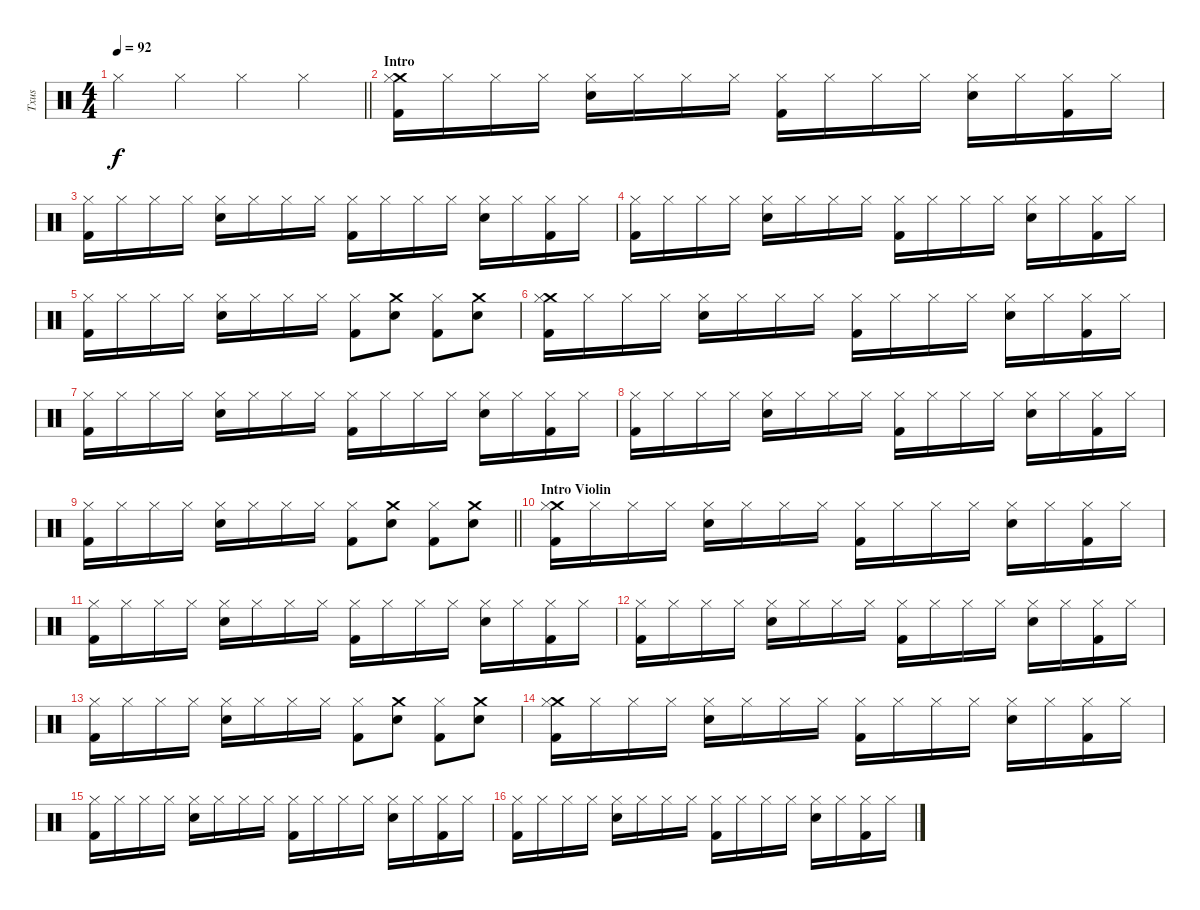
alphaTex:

\track ("Txus" "Txus") {instrument percussion}
\staff {score}
\articulation defaults
\ts (4 4)
\tempo 92
\clef neutral
\barLineRight lightlight
\ks c "Hi-Hat (closed)".4{dy f} "Hi-Hat (closed)".4 "Hi-Hat (closed)".4 "Hi-Hat (closed)".4
|
\section ("" "Intro")
("Crash medium (hit)" "Hi-Hat (closed)" "Kick (hit) 2").16 "Hi-Hat (closed)".16 "Hi-Hat (closed)".16 "Hi-Hat (closed)".16 ("Hi-Hat (closed)" "Electric Snare (hit)").16 "Hi-Hat (closed)".16 "Hi-Hat (closed)".16 "Hi-Hat (closed)".16 ("Hi-Hat (closed)" "Kick (hit) 2").16 "Hi-Hat (closed)".16 "Hi-Hat (closed)".16 "Hi-Hat (closed)".16 ("Hi-Hat (closed)" "Electric Snare (hit)").16 "Hi-Hat (closed)".16 ("Hi-Hat (closed)" "Kick (hit) 2").16 "Hi-Hat (closed)".16 |
("Hi-Hat (closed)" "Kick (hit) 2").16 "Hi-Hat (closed)".16 "Hi-Hat (closed)".16 "Hi-Hat (closed)".16 ("Hi-Hat (closed)" "Electric Snare (hit)").16 "Hi-Hat (closed)".16 "Hi-Hat (closed)".16 "Hi-Hat (closed)".16 ("Hi-Hat (closed)" "Kick (hit) 2").16 "Hi-Hat (closed)".16 "Hi-Hat (closed)".16 "Hi-Hat (closed)".16 ("Hi-Hat (closed)" "Electric Snare (hit)").16 "Hi-Hat (closed)".16 ("Hi-Hat (closed)" "Kick (hit) 2").16 "Hi-Hat (closed)".16 |
("Hi-Hat (closed)" "Kick (hit) 2").16 "Hi-Hat (closed)".16 "Hi-Hat (closed)".16 "Hi-Hat (closed)".16 ("Hi-Hat (closed)" "Electric Snare (hit)").16 "Hi-Hat (closed)".16 "Hi-Hat (closed)".16 "Hi-Hat (closed)".16 ("Hi-Hat (closed)" "Kick (hit) 2").16 "Hi-Hat (closed)".16 "Hi-Hat (closed)".16 "Hi-Hat (closed)".16 ("Hi-Hat (closed)" "Electric Snare (hit)").16 "Hi-Hat (closed)".16 ("Hi-Hat (closed)" "Kick (hit) 2").16 "Hi-Hat (closed)".16 |
("Hi-Hat (closed)" "Kick (hit) 2").16 "Hi-Hat (closed)".16 "Hi-Hat (closed)".16 "Hi-Hat (closed)".16 ("Hi-Hat (closed)" "Electric Snare (hit)").16 "Hi-Hat (closed)".16 "Hi-Hat (closed)".16 "Hi-Hat (closed)".16 ("Hi-Hat (closed)" "Kick (hit) 2").8 ("Crash medium (hit)" "Electric Snare (hit)").8 ("Hi-Hat (closed)" "Kick (hit) 2").8 ("Crash medium (hit)" "Electric Snare (hit)").8 |
("Crash medium (hit)" "Hi-Hat (closed)" "Kick (hit) 2").16 "Hi-Hat (closed)".16 "Hi-Hat (closed)".16 "Hi-Hat (closed)".16 ("Hi-Hat (closed)" "Electric Snare (hit)").16 "Hi-Hat (closed)".16 "Hi-Hat (closed)".16 "Hi-Hat (closed)".16 ("Hi-Hat (closed)" "Kick (hit) 2").16 "Hi-Hat (closed)".16 "Hi-Hat (closed)".16 "Hi-Hat (closed)".16 ("Hi-Hat (closed)" "Electric Snare (hit)").16 "Hi-Hat (closed)".16 ("Hi-Hat (closed)" "Kick (hit) 2").16 "Hi-Hat (closed)".16 |
("Hi-Hat (closed)" "Kick (hit) 2").16 "Hi-Hat (closed)".16 "Hi-Hat (closed)".16 "Hi-Hat (closed)".16 ("Hi-Hat (closed)" "Electric Snare (hit)").16 "Hi-Hat (closed)".16 "Hi-Hat (closed)".16 "Hi-Hat (closed)".16 ("Hi-Hat (closed)" "Kick (hit) 2").16 "Hi-Hat (closed)".16 "Hi-Hat (closed)".16 "Hi-Hat (closed)".16 ("Hi-Hat (closed)" "Electric Snare (hit)").16 "Hi-Hat (closed)".16 ("Hi-Hat (closed)" "Kick (hit) 2").16 "Hi-Hat (closed)".16 |
("Hi-Hat (closed)" "Kick (hit) 2").16 "Hi-Hat (closed)".16 "Hi-Hat (closed)".16 "Hi-Hat (closed)".16 ("Hi-Hat (closed)" "Electric Snare (hit)").16 "Hi-Hat (closed)".16 "Hi-Hat (closed)".16 "Hi-Hat (closed)".16 ("Hi-Hat (closed)" "Kick (hit) 2").16 "Hi-Hat (closed)".16 "Hi-Hat (closed)".16 "Hi-Hat (closed)".16 ("Hi-Hat (closed)" "Electric Snare (hit)").16 "Hi-Hat (closed)".16 ("Hi-Hat (closed)" "Kick (hit) 2").16 "Hi-Hat (closed)".16 |
\barLineRight lightlight
("Hi-Hat (closed)" "Kick (hit) 2").16 "Hi-Hat (closed)".16 "Hi-Hat (closed)".16 "Hi-Hat (closed)".16 ("Hi-Hat (closed)" "Electric Snare (hit)").16 "Hi-Hat (closed)".16 "Hi-Hat (closed)".16 "Hi-Hat (closed)".16 ("Hi-Hat (closed)" "Kick (hit) 2").8 ("Crash medium (hit)" "Electric Snare (hit)").8 ("Hi-Hat (closed)" "Kick (hit) 2").8 ("Crash medium (hit)" "Electric Snare (hit)").8 |
\section ("" "Intro Violin")
("Crash medium (hit)" "Hi-Hat (closed)" "Kick (hit) 2").16 "Hi-Hat (closed)".16 "Hi-Hat (closed)".16 "Hi-Hat (closed)".16 ("Hi-Hat (closed)" "Electric Snare (hit)").16 "Hi-Hat (closed)".16 "Hi-Hat (closed)".16 "Hi-Hat (closed)".16 ("Hi-Hat (closed)" "Kick (hit) 2").16 "Hi-Hat (closed)".16 "Hi-Hat (closed)".16 "Hi-Hat (closed)".16 ("Hi-Hat (closed)" "Electric Snare (hit)").16 "Hi-Hat (closed)".16 ("Hi-Hat (closed)" "Kick (hit) 2").16 "Hi-Hat (closed)".16 |
("Hi-Hat (closed)" "Kick (hit) 2").16 "Hi-Hat (closed)".16 "Hi-Hat (closed)".16 "Hi-Hat (closed)".16 ("Hi-Hat (closed)" "Electric Snare (hit)").16 "Hi-Hat (closed)".16 "Hi-Hat (closed)".16 "Hi-Hat (closed)".16 ("Hi-Hat (closed)" "Kick (hit) 2").16 "Hi-Hat (closed)".16 "Hi-Hat (closed)".16 "Hi-Hat (closed)".16 ("Hi-Hat (closed)" "Electric Snare (hit)").16 "Hi-Hat (closed)".16 ("Hi-Hat (closed)" "Kick (hit) 2").16 "Hi-Hat (closed)".16 |
("Hi-Hat (closed)" "Kick (hit) 2").16 "Hi-Hat (closed)".16 "Hi-Hat (closed)".16 "Hi-Hat (closed)".16 ("Hi-Hat (closed)" "Electric Snare (hit)").16 "Hi-Hat (closed)".16 "Hi-Hat (closed)".16 "Hi-Hat (closed)".16 ("Hi-Hat (closed)" "Kick (hit) 2").16 "Hi-Hat (closed)".16 "Hi-Hat (closed)".16 "Hi-Hat (closed)".16 ("Hi-Hat (closed)" "Electric Snare (hit)").16 "Hi-Hat (closed)".16 ("Hi-Hat (closed)" "Kick (hit) 2").16 "Hi-Hat (closed)".16 |
("Hi-Hat (closed)" "Kick (hit) 2").16 "Hi-Hat (closed)".16 "Hi-Hat (closed)".16 "Hi-Hat (closed)".16 ("Hi-Hat (closed)" "Electric Snare (hit)").16 "Hi-Hat (closed)".16 "Hi-Hat (closed)".16 "Hi-Hat (closed)".16 ("Hi-Hat (closed)" "Kick (hit) 2").8 ("Crash medium (hit)" "Electric Snare (hit)").8 ("Hi-Hat (closed)" "Kick (hit) 2").8 ("Crash medium (hit)" "Electric Snare (hit)").8 |
("Crash medium (hit)" "Hi-Hat (closed)" "Kick (hit) 2").16 "Hi-Hat (closed)".16 "Hi-Hat (closed)".16 "Hi-Hat (closed)".16 ("Hi-Hat (closed)" "Electric Snare (hit)").16 "Hi-Hat (closed)".16 "Hi-Hat (closed)".16 "Hi-Hat (closed)".16 ("Hi-Hat (closed)" "Kick (hit) 2").16 "Hi-Hat (closed)".16 "Hi-Hat (closed)".16 "Hi-Hat (closed)".16 ("Hi-Hat (closed)" "Electric Snare (hit)").16 "Hi-Hat (closed)".16 ("Hi-Hat (closed)" "Kick (hit) 2").16 "Hi-Hat (closed)".16 |
("Hi-Hat (closed)" "Kick (hit) 2").16 "Hi-Hat (closed)".16 "Hi-Hat (closed)".16 "Hi-Hat (closed)".16 ("Hi-Hat (closed)" "Electric Snare (hit)").16 "Hi-Hat (closed)".16 "Hi-Hat (closed)".16 "Hi-Hat (closed)".16 ("Hi-Hat (closed)" "Kick (hit) 2").16 "Hi-Hat (closed)".16 "Hi-Hat (closed)".16 "Hi-Hat (closed)".16 ("Hi-Hat (closed)" "Electric Snare (hit)").16 "Hi-Hat (closed)".16 ("Hi-Hat (closed)" "Kick (hit) 2").16 "Hi-Hat (closed)".16 |
("Hi-Hat (closed)" "Kick (hit) 2").16 "Hi-Hat (closed)".16 "Hi-Hat (closed)".16 "Hi-Hat (closed)".16 ("Hi-Hat (closed)" "Electric Snare (hit)").16 "Hi-Hat (closed)".16 "Hi-Hat (closed)".16 "Hi-Hat (closed)".16 ("Hi-Hat (closed)" "Kick (hit) 2").16 "Hi-Hat (closed)".16 "Hi-Hat (closed)".16 "Hi-Hat (closed)".16 ("Hi-Hat (closed)" "Electric Snare (hit)").16 "Hi-Hat (closed)".16 ("Hi-Hat (closed)" "Kick (hit) 2").16 "Hi-Hat (closed)".16
